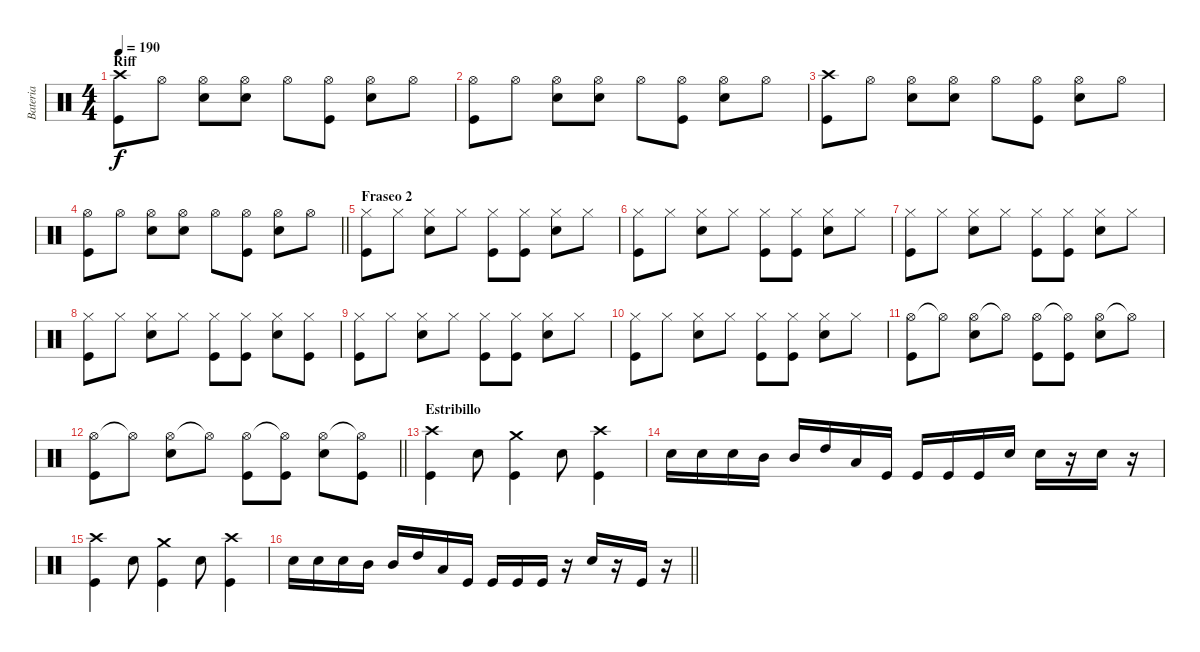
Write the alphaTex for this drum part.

\track ("Bateria" "Bateria") {instrument percussion}
\staff {score}
\articulation defaults
\ts (4 4)
\section ("" "Riff")
\tempo 190
\clef neutral
\ks c
("Crash high (hit)" "Kick (hit)").8{dy f} "Hi-Hat (open)".8 ("Hi-Hat (open)" "Snare (hit) 2").8 ("Hi-Hat (open)" "Snare (hit) 2").8 "Hi-Hat (open)".8 ("Hi-Hat (open)" "Kick (hit)").8 ("Hi-Hat (open)" "Snare (hit) 2").8 "Hi-Hat (open)".8 |
("Hi-Hat (open)" "Kick (hit)").8 "Hi-Hat (open)".8 ("Hi-Hat (open)" "Snare (hit) 2").8 ("Hi-Hat (open)" "Snare (hit) 2").8 "Hi-Hat (open)".8 ("Hi-Hat (open)" "Kick (hit)").8 ("Hi-Hat (open)" "Snare (hit) 2").8 "Hi-Hat (open)".8 |
("Crash high (hit)" "Kick (hit)").8 "Hi-Hat (open)".8 ("Hi-Hat (open)" "Snare (hit) 2").8 ("Hi-Hat (open)" "Snare (hit) 2").8 "Hi-Hat (open)".8 ("Hi-Hat (open)" "Kick (hit)").8 ("Hi-Hat (open)" "Snare (hit) 2").8 "Hi-Hat (open)".8 |
\barLineRight lightlight
("Hi-Hat (open)" "Kick (hit)").8 "Hi-Hat (open)".8 ("Hi-Hat (open)" "Snare (hit) 2").8 ("Hi-Hat (open)" "Snare (hit) 2").8 "Hi-Hat (open)".8 ("Hi-Hat (open)" "Kick (hit)").8 ("Hi-Hat (open)" "Snare (hit) 2").8 "Hi-Hat (open)".8 |
\section ("" "Fraseo 2")
("Hi-Hat (closed)" "Kick (hit)").8 "Hi-Hat (closed)".8 ("Hi-Hat (closed)" "Snare (hit) 2").8 "Hi-Hat (closed)".8 ("Hi-Hat (closed)" "Kick (hit)").8 ("Hi-Hat (closed)" "Kick (hit)").8 ("Hi-Hat (closed)" "Snare (hit) 2").8 "Hi-Hat (closed)".8 |
("Hi-Hat (closed)" "Kick (hit)").8 "Hi-Hat (closed)".8 ("Hi-Hat (closed)" "Snare (hit) 2").8 "Hi-Hat (closed)".8 ("Hi-Hat (closed)" "Kick (hit)").8 ("Hi-Hat (closed)" "Kick (hit)").8 ("Hi-Hat (closed)" "Snare (hit) 2").8 "Hi-Hat (closed)".8 |
("Hi-Hat (closed)" "Kick (hit)").8 "Hi-Hat (closed)".8 ("Hi-Hat (closed)" "Snare (hit) 2").8 "Hi-Hat (closed)".8 ("Hi-Hat (closed)" "Kick (hit)").8 ("Hi-Hat (closed)" "Kick (hit)").8 ("Hi-Hat (closed)" "Snare (hit) 2").8 "Hi-Hat (closed)".8 |
("Hi-Hat (closed)" "Kick (hit)").8 "Hi-Hat (closed)".8 ("Hi-Hat (closed)" "Snare (hit) 2").8 "Hi-Hat (closed)".8 ("Hi-Hat (closed)" "Kick (hit)").8 ("Hi-Hat (closed)" "Kick (hit)").8 ("Hi-Hat (closed)" "Snare (hit) 2").8 ("Hi-Hat (closed)" "Kick (hit)").8 |
("Hi-Hat (closed)" "Kick (hit)").8 "Hi-Hat (closed)".8 ("Hi-Hat (closed)" "Snare (hit) 2").8 "Hi-Hat (closed)".8 ("Hi-Hat (closed)" "Kick (hit)").8 ("Hi-Hat (closed)" "Kick (hit)").8 ("Hi-Hat (closed)" "Snare (hit) 2").8 "Hi-Hat (closed)".8 |
("Hi-Hat (closed)" "Kick (hit)").8 "Hi-Hat (closed)".8 ("Hi-Hat (closed)" "Snare (hit) 2").8 "Hi-Hat (closed)".8 ("Hi-Hat (closed)" "Kick (hit)").8 ("Hi-Hat (closed)" "Kick (hit)").8 ("Hi-Hat (closed)" "Snare (hit) 2").8 "Hi-Hat (closed)".8 |
("Hi-Hat (open)" "Kick (hit)").8 "Hi-Hat (open)"{t}.8 ("Hi-Hat (open)" "Snare (hit) 2").8 "Hi-Hat (open)"{t}.8 ("Hi-Hat (open)" "Kick (hit)").8 ("Hi-Hat (open)"{t} "Kick (hit)").8 ("Hi-Hat (open)" "Snare (hit) 2").8 "Hi-Hat (open)"{t}.8 |
\barLineRight lightlight
("Hi-Hat (open)" "Kick (hit)").8 "Hi-Hat (open)"{t}.8 ("Hi-Hat (open)" "Snare (hit) 2").8 "Hi-Hat (open)"{t}.8 ("Hi-Hat (open)" "Kick (hit)").8 ("Hi-Hat (open)"{t} "Kick (hit)").8 ("Hi-Hat (open)" "Snare (hit) 2").8 ("Hi-Hat (open)"{t} "Kick (hit)").8 |
\section ("" "Estribillo")
("Crash high (hit)" "Kick (hit)").4 "Snare (hit) 2".8 ("Crash medium (hit)" "Kick (hit)").4 "Snare (hit) 2".8 ("Crash high (hit)" "Kick (hit)").4 |
"Snare (hit) 2".16 "Snare (hit) 2".16 "Snare (hit) 2".16 "Mid Tom (hit)".16 "Mid Tom (hit)".16 "High Tom (hit)".16 "Low Tom (hit)".16 "Kick (hit)".16 "Kick (hit)".16 "Kick (hit)".16 "Kick (hit)".16 "Snare (hit) 2".16 "Snare (hit) 2".16 r.16 "Snare (hit) 2".16 r.16 |
("Crash high (hit)" "Kick (hit)").4 "Snare (hit) 2".8 ("Crash medium (hit)" "Kick (hit)").4 "Snare (hit) 2".8 ("Crash high (hit)" "Kick (hit)").4 |
\barLineRight lightlight "Snare (hit) 2".16 "Snare (hit) 2".16 "Snare (hit) 2".16 "Mid Tom (hit)".16 "Mid Tom (hit)".16 "High Tom (hit)".16 "Low Tom (hit)".16 "Kick (hit)".16 "Kick (hit)".16 "Kick (hit)".16 "Kick (hit)".16
r.16 "Snare (hit) 2".16 r.16 "Kick (hit)".16 r.16
